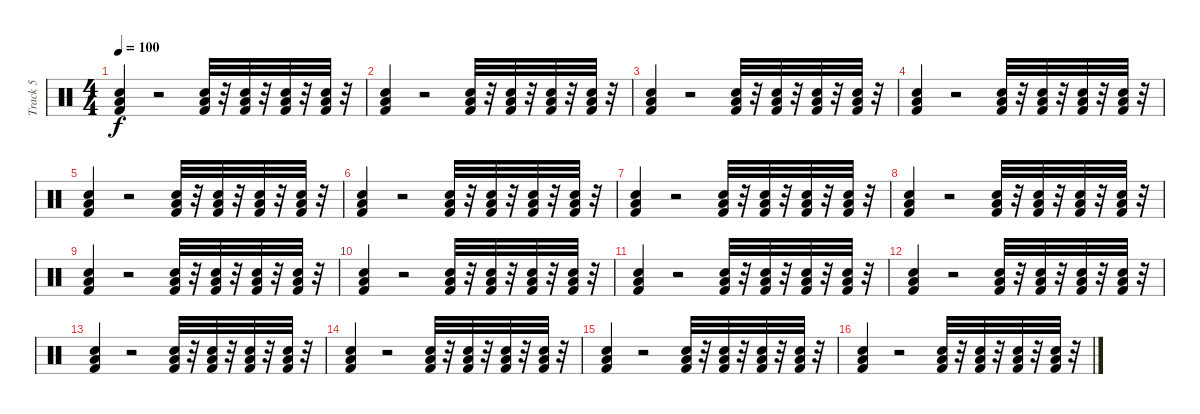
\track ("Track 5" "Track 5") {instrument percussion}
\staff {score}
\articulation defaults
\ts (4 4)
\tempo 100
\clef neutral
\ks c
("Kick (hit) 2" "Low Floor Tom (hit)" "Snare (hit) 2").4{dy f} r.2 ("Snare (hit) 2" "Kick (hit) 2" "Low Floor Tom (hit)").32 r.32 ("Snare (hit) 2" "Kick (hit) 2" "Low Floor Tom (hit)").32 r.32 ("Snare (hit) 2" "Kick (hit) 2" "Low Floor Tom (hit)").32 r.32 ("Snare (hit) 2" "Kick (hit) 2" "Low Floor Tom (hit)").32 r.32 |
("Low Floor Tom (hit)" "Snare (hit) 2" "Kick (hit) 2").4 r.2 ("Snare (hit) 2" "Kick (hit) 2" "Low Floor Tom (hit)").32 r.32 ("Snare (hit) 2" "Kick (hit) 2" "Low Floor Tom (hit)").32 r.32 ("Snare (hit) 2" "Kick (hit) 2" "Low Floor Tom (hit)").32 r.32 ("Snare (hit) 2" "Kick (hit) 2" "Low Floor Tom (hit)").32 r.32 |
("Kick (hit) 2" "Low Floor Tom (hit)" "Snare (hit) 2").4 r.2 ("Snare (hit) 2" "Kick (hit) 2" "Low Floor Tom (hit)").32 r.32 ("Snare (hit) 2" "Kick (hit) 2" "Low Floor Tom (hit)").32 r.32 ("Snare (hit) 2" "Kick (hit) 2" "Low Floor Tom (hit)").32 r.32 ("Snare (hit) 2" "Kick (hit) 2" "Low Floor Tom (hit)").32 r.32 |
("Low Floor Tom (hit)" "Snare (hit) 2" "Kick (hit) 2").4 r.2 ("Snare (hit) 2" "Kick (hit) 2" "Low Floor Tom (hit)").32 r.32 ("Snare (hit) 2" "Kick (hit) 2" "Low Floor Tom (hit)").32 r.32 ("Snare (hit) 2" "Kick (hit) 2" "Low Floor Tom (hit)").32 r.32 ("Snare (hit) 2" "Kick (hit) 2" "Low Floor Tom (hit)").32 r.32 |
("Snare (hit) 2" "Kick (hit) 2" "Low Floor Tom (hit)").4 r.2 ("Snare (hit) 2" "Kick (hit) 2" "Low Floor Tom (hit)").32 r.32 ("Snare (hit) 2" "Kick (hit) 2" "Low Floor Tom (hit)").32 r.32 ("Snare (hit) 2" "Kick (hit) 2" "Low Floor Tom (hit)").32 r.32 ("Snare (hit) 2" "Kick (hit) 2" "Low Floor Tom (hit)").32 r.32 |
("Kick (hit) 2" "Low Floor Tom (hit)" "Snare (hit) 2").4 r.2 ("Snare (hit) 2" "Kick (hit) 2" "Low Floor Tom (hit)").32 r.32 ("Snare (hit) 2" "Kick (hit) 2" "Low Floor Tom (hit)").32 r.32 ("Snare (hit) 2" "Kick (hit) 2" "Low Floor Tom (hit)").32 r.32 ("Snare (hit) 2" "Kick (hit) 2" "Low Floor Tom (hit)").32 r.32 |
("Kick (hit) 2" "Snare (hit) 2" "Low Floor Tom (hit)").4 r.2 ("Snare (hit) 2" "Kick (hit) 2" "Low Floor Tom (hit)").32 r.32 ("Snare (hit) 2" "Kick (hit) 2" "Low Floor Tom (hit)").32 r.32 ("Snare (hit) 2" "Kick (hit) 2" "Low Floor Tom (hit)").32 r.32 ("Snare (hit) 2" "Kick (hit) 2" "Low Floor Tom (hit)").32 r.32 |
("Low Floor Tom (hit)" "Snare (hit) 2" "Kick (hit) 2").4 r.2 ("Snare (hit) 2" "Kick (hit) 2" "Low Floor Tom (hit)").32 r.32 ("Snare (hit) 2" "Kick (hit) 2" "Low Floor Tom (hit)").32 r.32 ("Snare (hit) 2" "Kick (hit) 2" "Low Floor Tom (hit)").32 r.32 ("Snare (hit) 2" "Kick (hit) 2" "Low Floor Tom (hit)").32 r.32 |
("Snare (hit) 2" "Kick (hit) 2" "Low Floor Tom (hit)").4 r.2 ("Snare (hit) 2" "Kick (hit) 2" "Low Floor Tom (hit)").32 r.32 ("Snare (hit) 2" "Kick (hit) 2" "Low Floor Tom (hit)").32 r.32 ("Snare (hit) 2" "Kick (hit) 2" "Low Floor Tom (hit)").32 r.32 ("Snare (hit) 2" "Kick (hit) 2" "Low Floor Tom (hit)").32 r.32 |
("Low Floor Tom (hit)" "Snare (hit) 2" "Kick (hit) 2").4 r.2 ("Snare (hit) 2" "Kick (hit) 2" "Low Floor Tom (hit)").32 r.32 ("Snare (hit) 2" "Kick (hit) 2" "Low Floor Tom (hit)").32 r.32 ("Snare (hit) 2" "Kick (hit) 2" "Low Floor Tom (hit)").32 r.32 ("Snare (hit) 2" "Kick (hit) 2" "Low Floor Tom (hit)").32 r.32 |
("Kick (hit) 2" "Low Floor Tom (hit)" "Snare (hit) 2").4 r.2 ("Snare (hit) 2" "Kick (hit) 2" "Low Floor Tom (hit)").32 r.32 ("Snare (hit) 2" "Kick (hit) 2" "Low Floor Tom (hit)").32 r.32 ("Snare (hit) 2" "Kick (hit) 2" "Low Floor Tom (hit)").32 r.32 ("Snare (hit) 2" "Kick (hit) 2" "Low Floor Tom (hit)").32 r.32 |
("Low Floor Tom (hit)" "Snare (hit) 2" "Kick (hit) 2").4 r.2 ("Snare (hit) 2" "Kick (hit) 2" "Low Floor Tom (hit)").32 r.32 ("Snare (hit) 2" "Kick (hit) 2" "Low Floor Tom (hit)").32 r.32 ("Snare (hit) 2" "Kick (hit) 2" "Low Floor Tom (hit)").32 r.32 ("Snare (hit) 2" "Kick (hit) 2" "Low Floor Tom (hit)").32 r.32 |
("Kick (hit) 2" "Low Floor Tom (hit)" "Snare (hit) 2").4 r.2 ("Snare (hit) 2" "Kick (hit) 2" "Low Floor Tom (hit)").32 r.32 ("Snare (hit) 2" "Kick (hit) 2" "Low Floor Tom (hit)").32 r.32 ("Snare (hit) 2" "Kick (hit) 2" "Low Floor Tom (hit)").32 r.32 ("Snare (hit) 2" "Kick (hit) 2" "Low Floor Tom (hit)").32 r.32 |
("Low Floor Tom (hit)" "Snare (hit) 2" "Kick (hit) 2").4 r.2 ("Snare (hit) 2" "Kick (hit) 2" "Low Floor Tom (hit)").32 r.32 ("Snare (hit) 2" "Kick (hit) 2" "Low Floor Tom (hit)").32 r.32 ("Snare (hit) 2" "Kick (hit) 2" "Low Floor Tom (hit)").32 r.32 ("Snare (hit) 2" "Kick (hit) 2" "Low Floor Tom (hit)").32 r.32 |
("Kick (hit) 2" "Low Floor Tom (hit)" "Snare (hit) 2").4 r.2 ("Snare (hit) 2" "Kick (hit) 2" "Low Floor Tom (hit)").32 r.32 ("Snare (hit) 2" "Kick (hit) 2" "Low Floor Tom (hit)").32 r.32 ("Snare (hit) 2" "Kick (hit) 2" "Low Floor Tom (hit)").32 r.32 ("Snare (hit) 2" "Kick (hit) 2" "Low Floor Tom (hit)").32 r.32 |
("Low Floor Tom (hit)" "Snare (hit) 2" "Kick (hit) 2").4 r.2 ("Snare (hit) 2" "Kick (hit) 2" "Low Floor Tom (hit)").32 r.32 ("Snare (hit) 2" "Kick (hit) 2" "Low Floor Tom (hit)").32 r.32 ("Snare (hit) 2" "Kick (hit) 2" "Low Floor Tom (hit)").32 r.32 ("Snare (hit) 2" "Kick (hit) 2" "Low Floor Tom (hit)").32 r.32
